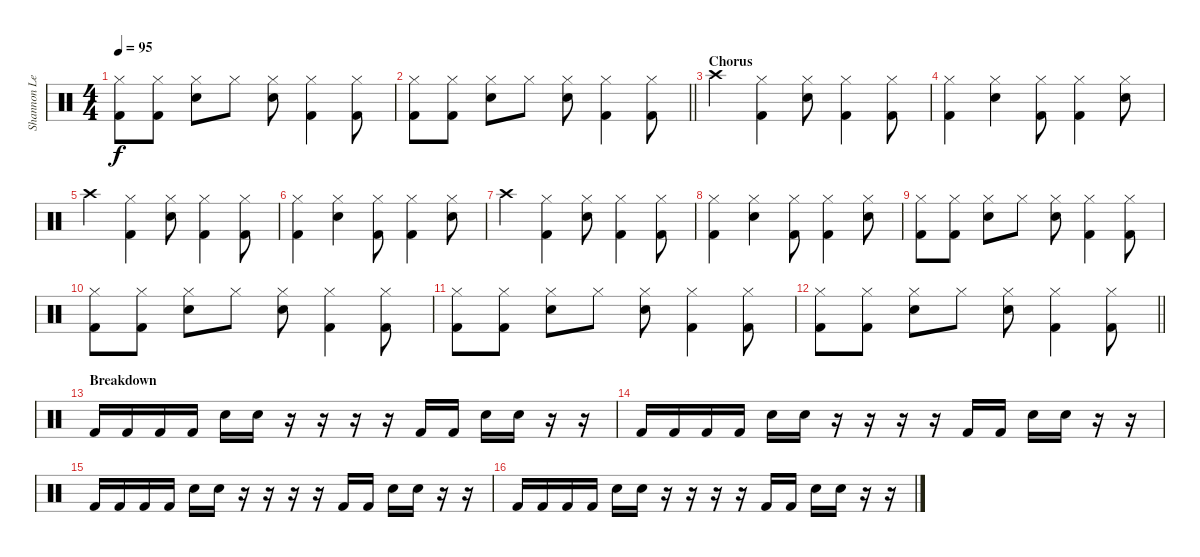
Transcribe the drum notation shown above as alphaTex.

\track ("Shannon Leto (Percussion)" "Shannon Le") {instrument percussion}
\staff {score}
\articulation defaults
\ts (4 4)
\tempo 95
\clef neutral
\ks c
("Hi-Hat (closed)" "Kick (hit) 2").8{dy f} ("Hi-Hat (closed)" "Kick (hit) 2").8 ("Hi-Hat (closed)" "Snare (hit) 2").8 "Hi-Hat (closed)".8 ("Hi-Hat (closed)" "Snare (hit) 2").8 ("Hi-Hat (closed)" "Kick (hit) 2").4 ("Hi-Hat (closed)" "Kick (hit) 2").8 |
\barLineRight lightlight
("Hi-Hat (closed)" "Kick (hit) 2").8 ("Hi-Hat (closed)" "Kick (hit) 2").8 ("Hi-Hat (closed)" "Snare (hit) 2").8 "Hi-Hat (closed)".8 ("Hi-Hat (closed)" "Snare (hit) 2").8 ("Hi-Hat (closed)" "Kick (hit) 2").4 ("Hi-Hat (closed)" "Kick (hit) 2").8 |
\section ("" "Chorus")
"Crash high (hit)".4 ("Hi-Hat (closed)" "Kick (hit) 2").4 ("Hi-Hat (closed)" "Snare (hit) 2").8 ("Hi-Hat (closed)" "Kick (hit) 2").4 ("Hi-Hat (closed)" "Kick (hit) 2").8 |
("Hi-Hat (closed)" "Kick (hit) 2").4 ("Hi-Hat (closed)" "Snare (hit) 2").4 ("Hi-Hat (closed)" "Kick (hit) 2").8 ("Hi-Hat (closed)" "Kick (hit) 2").4 ("Hi-Hat (closed)" "Snare (hit) 2").8 |
"Crash high (hit)".4 ("Hi-Hat (closed)" "Kick (hit) 2").4 ("Hi-Hat (closed)" "Snare (hit) 2").8 ("Hi-Hat (closed)" "Kick (hit) 2").4 ("Hi-Hat (closed)" "Kick (hit) 2").8 |
("Hi-Hat (closed)" "Kick (hit) 2").4 ("Hi-Hat (closed)" "Snare (hit) 2").4 ("Hi-Hat (closed)" "Kick (hit) 2").8 ("Hi-Hat (closed)" "Kick (hit) 2").4 ("Hi-Hat (closed)" "Snare (hit) 2").8 |
"Crash high (hit)".4 ("Hi-Hat (closed)" "Kick (hit) 2").4 ("Hi-Hat (closed)" "Snare (hit) 2").8 ("Hi-Hat (closed)" "Kick (hit) 2").4 ("Hi-Hat (closed)" "Kick (hit) 2").8 |
("Hi-Hat (closed)" "Kick (hit) 2").4 ("Hi-Hat (closed)" "Snare (hit) 2").4 ("Hi-Hat (closed)" "Kick (hit) 2").8 ("Hi-Hat (closed)" "Kick (hit) 2").4 ("Hi-Hat (closed)" "Snare (hit) 2").8 |
("Hi-Hat (closed)" "Kick (hit) 2").8 ("Hi-Hat (closed)" "Kick (hit) 2").8 ("Hi-Hat (closed)" "Snare (hit) 2").8 "Hi-Hat (closed)".8 ("Hi-Hat (closed)" "Snare (hit) 2").8 ("Hi-Hat (closed)" "Kick (hit) 2").4 ("Hi-Hat (closed)" "Kick (hit) 2").8 |
("Hi-Hat (closed)" "Kick (hit) 2").8 ("Hi-Hat (closed)" "Kick (hit) 2").8 ("Hi-Hat (closed)" "Snare (hit) 2").8 "Hi-Hat (closed)".8 ("Hi-Hat (closed)" "Snare (hit) 2").8 ("Hi-Hat (closed)" "Kick (hit) 2").4 ("Hi-Hat (closed)" "Kick (hit) 2").8 |
("Hi-Hat (closed)" "Kick (hit) 2").8 ("Hi-Hat (closed)" "Kick (hit) 2").8 ("Hi-Hat (closed)" "Snare (hit) 2").8 "Hi-Hat (closed)".8 ("Hi-Hat (closed)" "Snare (hit) 2").8 ("Hi-Hat (closed)" "Kick (hit) 2").4 ("Hi-Hat (closed)" "Kick (hit) 2").8 |
\barLineRight lightlight
("Hi-Hat (closed)" "Kick (hit) 2").8 ("Hi-Hat (closed)" "Kick (hit) 2").8 ("Hi-Hat (closed)" "Snare (hit) 2").8 "Hi-Hat (closed)".8 ("Hi-Hat (closed)" "Snare (hit) 2").8 ("Hi-Hat (closed)" "Kick (hit) 2").4 ("Hi-Hat (closed)" "Kick (hit) 2").8 |
\section ("" "Breakdown")
"Kick (hit) 2".16 "Kick (hit) 2".16 "Kick (hit) 2".16 "Kick (hit) 2".16 "Snare (hit) 2".16 "Snare (hit) 2".16 r.16 r.16 r.16 r.16 "Kick (hit) 2".16 "Kick (hit) 2".16 "Snare (hit) 2".16 "Snare (hit) 2".16 r.16 r.16 |
"Kick (hit) 2".16 "Kick (hit) 2".16 "Kick (hit) 2".16 "Kick (hit) 2".16 "Snare (hit) 2".16 "Snare (hit) 2".16 r.16 r.16 r.16 r.16 "Kick (hit) 2".16 "Kick (hit) 2".16 "Snare (hit) 2".16 "Snare (hit) 2".16 r.16 r.16 |
"Kick (hit) 2".16 "Kick (hit) 2".16 "Kick (hit) 2".16 "Kick (hit) 2".16 "Snare (hit) 2".16 "Snare (hit) 2".16 r.16 r.16 r.16 r.16 "Kick (hit) 2".16 "Kick (hit) 2".16 "Snare (hit) 2".16 "Snare (hit) 2".16 r.16 r.16 |
"Kick (hit) 2".16 "Kick (hit) 2".16 "Kick (hit) 2".16 "Kick (hit) 2".16 "Snare (hit) 2".16 "Snare (hit) 2".16 r.16 r.16 r.16 r.16 "Kick (hit) 2".16 "Kick (hit) 2".16 "Snare (hit) 2".16 "Snare (hit) 2".16 r.16 r.16
